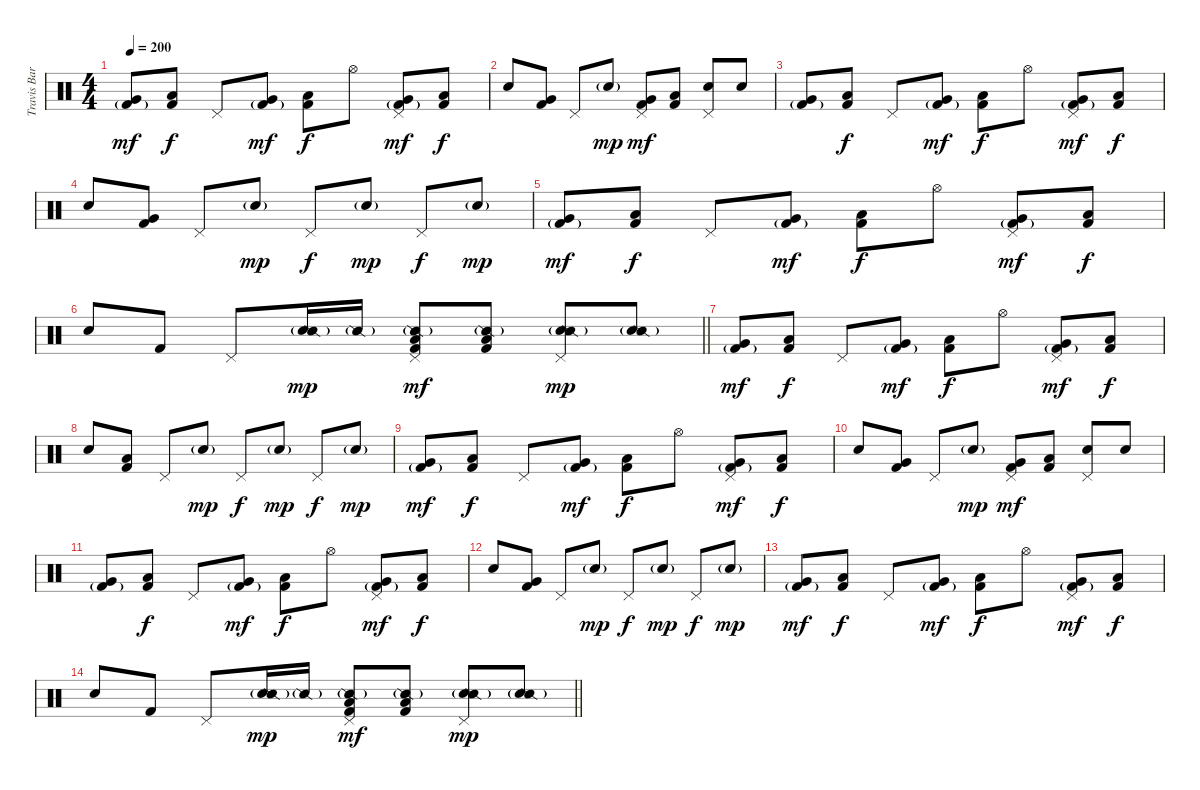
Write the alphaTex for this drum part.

\track ("Travis Barker - Drums" "Travis Bar") {instrument percussion}
\staff {score}
\articulation defaults
\ts (4 4)
\tempo 200
\clef neutral
\ks c
("Very Low Tom (hit)" "Kick (hit) 2"{g}).8{dy mf} ("Low Floor Tom (hit)" "Kick (hit) 2").8{dy f} "Pedal Hi-Hat (hit)".8 ("Very Low Tom (hit)" "Kick (hit) 2"{g}).8{dy mf} ("Low Floor Tom (hit)" "Kick (hit) 2").8{dy f} "Hi-Hat (open)".8 ("Pedal Hi-Hat (hit)" "Very Low Tom (hit)" "Kick (hit) 2"{g}).8{dy mf} ("Low Floor Tom (hit)" "Kick (hit) 2").8{dy f} |
"Electric Snare (hit)".8 ("Very Low Tom (hit)" "Kick (hit) 2").8 "Pedal Hi-Hat (hit)".8 "Electric Snare (hit)"{g}.8{dy mp} ("Pedal Hi-Hat (hit)" "Very Low Tom (hit)" "Kick (hit) 2").8{dy mf} ("Low Floor Tom (hit)" "Kick (hit) 2").8 ("Pedal Hi-Hat (hit)" "Electric Snare (hit)").8 "Electric Snare (hit)".8 |
("Very Low Tom (hit)" "Kick (hit) 2"{g}).8 ("Low Floor Tom (hit)" "Kick (hit) 2").8{dy f} "Pedal Hi-Hat (hit)".8 ("Very Low Tom (hit)" "Kick (hit) 2"{g}).8{dy mf} ("Low Floor Tom (hit)" "Kick (hit) 2").8{dy f} "Hi-Hat (open)".8 ("Pedal Hi-Hat (hit)" "Very Low Tom (hit)" "Kick (hit) 2"{g}).8{dy mf} ("Low Floor Tom (hit)" "Kick (hit) 2").8{dy f} |
"Electric Snare (hit)".8 ("Very Low Tom (hit)" "Kick (hit) 2").8 "Pedal Hi-Hat (hit)".8 "Electric Snare (hit)"{g}.8{dy mp} "Pedal Hi-Hat (hit)".8{dy f} "Electric Snare (hit)"{g}.8{dy mp} "Pedal Hi-Hat (hit)".8{dy f} "Electric Snare (hit)"{g}.8{dy mp} |
("Very Low Tom (hit)" "Kick (hit) 2"{g}).8{dy mf} ("Low Floor Tom (hit)" "Kick (hit) 2").8{dy f} "Pedal Hi-Hat (hit)".8 ("Very Low Tom (hit)" "Kick (hit) 2"{g}).8{dy mf} ("Low Floor Tom (hit)" "Kick (hit) 2").8{dy f} "Hi-Hat (open)".8 ("Pedal Hi-Hat (hit)" "Very Low Tom (hit)" "Kick (hit) 2"{g}).8{dy mf} ("Low Floor Tom (hit)" "Kick (hit) 2").8{dy f} |
\barLineRight lightlight "Electric Snare (hit)".8 "Kick (hit) 2".8 "Pedal Hi-Hat (hit)".8
("Electric Snare (hit)"{g} "Snare (side stick) 2"{g}).16{dy mp} "Snare (side stick) 2"{g}.16 ("Pedal Hi-Hat (hit)" "Snare (side stick) 2"{g} "Low Floor Tom (hit)" "Kick (hit) 2").8{dy mf} ("Snare (side stick) 2"{g} "Low Floor Tom (hit)" "Kick (hit) 2").8 ("Pedal Hi-Hat (hit)" "Electric Snare (hit)" "Snare (side stick) 2"{g}).8{dy mp} ("Electric Snare (hit)" "Snare (side stick) 2"{g}).8 |
("Very Low Tom (hit)" "Kick (hit) 2"{g}).8{dy mf volume 5} ("Low Floor Tom (hit)" "Kick (hit) 2").8{dy f} "Pedal Hi-Hat (hit)".8 ("Very Low Tom (hit)" "Kick (hit) 2"{g}).8{dy mf} ("Low Floor Tom (hit)" "Kick (hit) 2").8{dy f} "Hi-Hat (open)".8 ("Pedal Hi-Hat (hit)" "Very Low Tom (hit)" "Kick (hit) 2"{g}).8{dy mf} ("Low Floor Tom (hit)" "Kick (hit) 2").8{dy f} |
"Electric Snare (hit)".8 ("Low Floor Tom (hit)" "Kick (hit) 2").8 "Pedal Hi-Hat (hit)".8 "Electric Snare (hit)"{g}.8{dy mp} "Pedal Hi-Hat (hit)".8{dy f} "Electric Snare (hit)"{g}.8{dy mp} "Pedal Hi-Hat (hit)".8{dy f} "Electric Snare (hit)"{g}.8{dy mp} |
("Very Low Tom (hit)" "Kick (hit) 2"{g}).8{dy mf} ("Low Floor Tom (hit)" "Kick (hit) 2").8{dy f} "Pedal Hi-Hat (hit)".8 ("Very Low Tom (hit)" "Kick (hit) 2"{g}).8{dy mf} ("Low Floor Tom (hit)" "Kick (hit) 2").8{dy f} "Hi-Hat (open)".8 ("Pedal Hi-Hat (hit)" "Very Low Tom (hit)" "Kick (hit) 2"{g}).8{dy mf} ("Low Floor Tom (hit)" "Kick (hit) 2").8{dy f} |
"Electric Snare (hit)".8 ("Very Low Tom (hit)" "Kick (hit) 2").8 "Pedal Hi-Hat (hit)".8 "Electric Snare (hit)"{g}.8{dy mp} ("Pedal Hi-Hat (hit)" "Very Low Tom (hit)" "Kick (hit) 2").8{dy mf} ("Low Floor Tom (hit)" "Kick (hit) 2").8 ("Pedal Hi-Hat (hit)" "Electric Snare (hit)").8 "Electric Snare (hit)".8 |
("Very Low Tom (hit)" "Kick (hit) 2"{g}).8{volume 0} ("Low Floor Tom (hit)" "Kick (hit) 2").8{dy f} "Pedal Hi-Hat (hit)".8 ("Very Low Tom (hit)" "Kick (hit) 2"{g}).8{dy mf} ("Low Floor Tom (hit)" "Kick (hit) 2").8{dy f} "Hi-Hat (open)".8 ("Pedal Hi-Hat (hit)" "Very Low Tom (hit)" "Kick (hit) 2"{g}).8{dy mf} ("Low Floor Tom (hit)" "Kick (hit) 2").8{dy f} |
"Electric Snare (hit)".8 ("Very Low Tom (hit)" "Kick (hit) 2").8 "Pedal Hi-Hat (hit)".8 "Electric Snare (hit)"{g}.8{dy mp} "Pedal Hi-Hat (hit)".8{dy f} "Electric Snare (hit)"{g}.8{dy mp} "Pedal Hi-Hat (hit)".8{dy f} "Electric Snare (hit)"{g}.8{dy mp} |
("Very Low Tom (hit)" "Kick (hit) 2"{g}).8{dy mf} ("Low Floor Tom (hit)" "Kick (hit) 2").8{dy f} "Pedal Hi-Hat (hit)".8 ("Very Low Tom (hit)" "Kick (hit) 2"{g}).8{dy mf} ("Low Floor Tom (hit)" "Kick (hit) 2").8{dy f} "Hi-Hat (open)".8 ("Pedal Hi-Hat (hit)" "Very Low Tom (hit)" "Kick (hit) 2"{g}).8{dy mf} ("Low Floor Tom (hit)" "Kick (hit) 2").8{dy f} |
\barLineRight lightlight "Electric Snare (hit)".8 "Kick (hit) 2".8 "Pedal Hi-Hat (hit)".8
("Electric Snare (hit)"{g} "Snare (side stick) 2"{g}).16{dy mp} "Snare (side stick) 2"{g}.16 ("Pedal Hi-Hat (hit)" "Snare (side stick) 2"{g} "Low Floor Tom (hit)" "Kick (hit) 2").8{dy mf} ("Snare (side stick) 2"{g} "Low Floor Tom (hit)" "Kick (hit) 2").8 ("Pedal Hi-Hat (hit)" "Electric Snare (hit)" "Snare (side stick) 2"{g}).8{dy mp} ("Electric Snare (hit)" "Snare (side stick) 2"{g}).8
